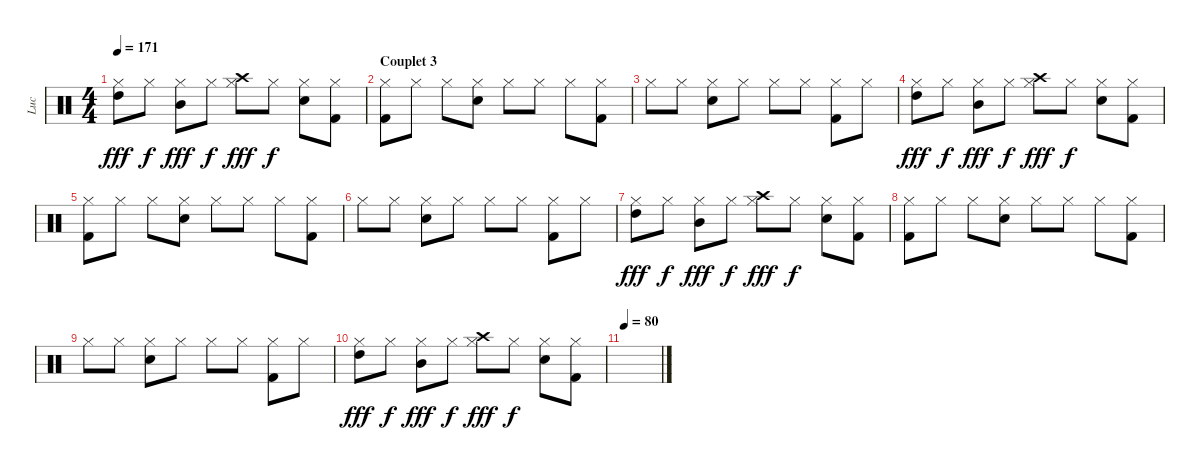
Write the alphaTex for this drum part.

\track ("Luc" "Luc") {instrument percussion}
\staff {score}
\articulation defaults
\ts (4 4)
\tempo 171
\clef neutral
\ks c
("Hi-Hat (closed)" "High Tom (hit)").8{dy fff} "Hi-Hat (closed)".8{dy f} ("Hi-Hat (closed)" "Mid Tom (hit)").8{dy fff} "Hi-Hat (closed)".8{dy f} ("Hi-Hat (closed)" "Crash high (hit)").8{dy fff} "Hi-Hat (closed)".8{dy f} ("Hi-Hat (closed)" "Snare (hit) 2").8 ("Hi-Hat (closed)" "Kick (hit) 2").8 |
\section ("" "Couplet 3")
("Hi-Hat (closed)" "Kick (hit) 2").8 "Hi-Hat (closed)".8 "Hi-Hat (closed)".8 ("Hi-Hat (closed)" "Snare (hit) 2").8 "Hi-Hat (closed)".8 "Hi-Hat (closed)".8 "Hi-Hat (closed)".8 ("Hi-Hat (closed)" "Kick (hit) 2").8 |
"Hi-Hat (closed)".8 "Hi-Hat (closed)".8 ("Hi-Hat (closed)" "Snare (hit) 2").8 "Hi-Hat (closed)".8 "Hi-Hat (closed)".8 "Hi-Hat (closed)".8 ("Hi-Hat (closed)" "Kick (hit) 2").8 "Hi-Hat (closed)".8 |
("Hi-Hat (closed)" "High Tom (hit)").8{dy fff} "Hi-Hat (closed)".8{dy f} ("Hi-Hat (closed)" "Mid Tom (hit)").8{dy fff} "Hi-Hat (closed)".8{dy f} ("Hi-Hat (closed)" "Crash high (hit)").8{dy fff} "Hi-Hat (closed)".8{dy f} ("Hi-Hat (closed)" "Snare (hit) 2").8 ("Hi-Hat (closed)" "Kick (hit) 2").8 |
("Hi-Hat (closed)" "Kick (hit) 2").8 "Hi-Hat (closed)".8 "Hi-Hat (closed)".8 ("Hi-Hat (closed)" "Snare (hit) 2").8 "Hi-Hat (closed)".8 "Hi-Hat (closed)".8 "Hi-Hat (closed)".8 ("Hi-Hat (closed)" "Kick (hit) 2").8 |
"Hi-Hat (closed)".8 "Hi-Hat (closed)".8 ("Hi-Hat (closed)" "Snare (hit) 2").8 "Hi-Hat (closed)".8 "Hi-Hat (closed)".8 "Hi-Hat (closed)".8 ("Hi-Hat (closed)" "Kick (hit) 2").8 "Hi-Hat (closed)".8 |
("Hi-Hat (closed)" "High Tom (hit)").8{dy fff} "Hi-Hat (closed)".8{dy f} ("Hi-Hat (closed)" "Mid Tom (hit)").8{dy fff} "Hi-Hat (closed)".8{dy f} ("Hi-Hat (closed)" "Crash high (hit)").8{dy fff} "Hi-Hat (closed)".8{dy f} ("Hi-Hat (closed)" "Snare (hit) 2").8 ("Hi-Hat (closed)" "Kick (hit) 2").8 |
("Hi-Hat (closed)" "Kick (hit) 2").8 "Hi-Hat (closed)".8 "Hi-Hat (closed)".8 ("Hi-Hat (closed)" "Snare (hit) 2").8 "Hi-Hat (closed)".8 "Hi-Hat (closed)".8 "Hi-Hat (closed)".8 ("Hi-Hat (closed)" "Kick (hit) 2").8 |
"Hi-Hat (closed)".8 "Hi-Hat (closed)".8 ("Hi-Hat (closed)" "Snare (hit) 2").8 "Hi-Hat (closed)".8 "Hi-Hat (closed)".8 "Hi-Hat (closed)".8 ("Hi-Hat (closed)" "Kick (hit) 2").8 "Hi-Hat (closed)".8 |
("Hi-Hat (closed)" "High Tom (hit)").8{dy fff} "Hi-Hat (closed)".8{dy f} ("Hi-Hat (closed)" "Mid Tom (hit)").8{dy fff} "Hi-Hat (closed)".8{dy f} ("Hi-Hat (closed)" "Crash high (hit)").8{dy fff} "Hi-Hat (closed)".8{dy f} ("Hi-Hat (closed)" "Snare (hit) 2").8 ("Hi-Hat (closed)" "Kick (hit) 2").8 |
\tempo 80
